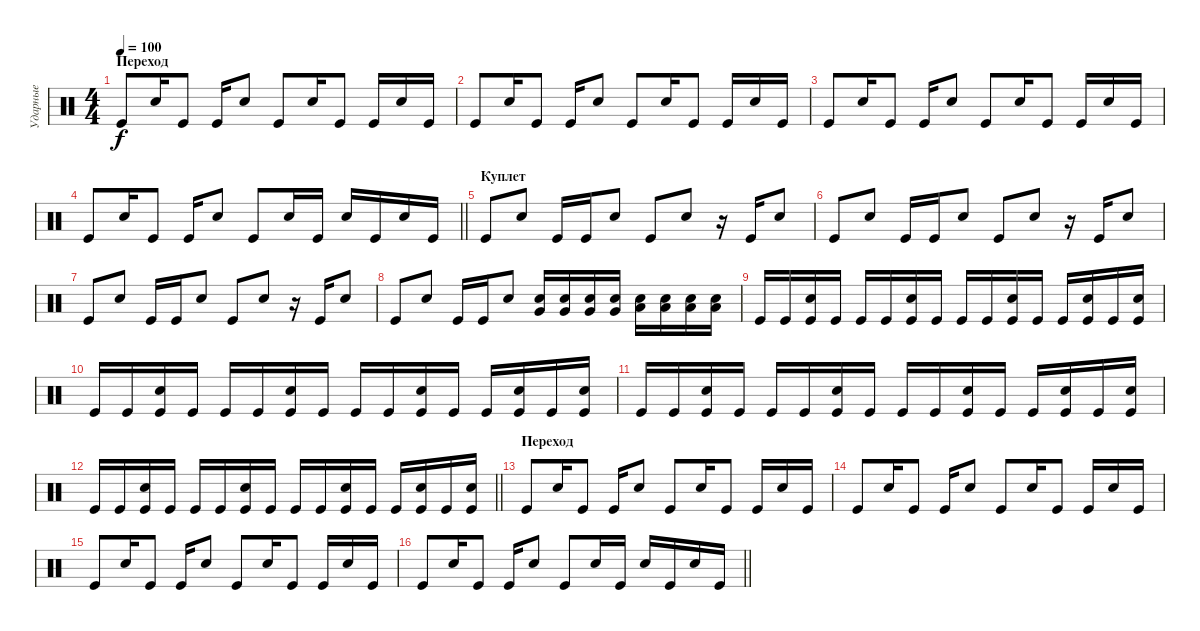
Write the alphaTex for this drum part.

\track ("Ударные" "Ударные") {instrument percussion}
\staff {score}
\articulation defaults
\ts (4 4)
\section ("" "Переход")
\tempo 100
\clef neutral
\ks c "Kick (hit)".8{dy f} "Snare (hit) 2".16 "Kick (hit)".8 "Kick (hit)".16 "Snare (hit) 2".8 "Kick (hit)".8 "Snare (hit) 2".16 "Kick (hit)".8 "Kick (hit)".16 "Snare (hit) 2".16 "Kick (hit)".16
|
"Kick (hit)".8 "Snare (hit) 2".16 "Kick (hit)".8 "Kick (hit)".16 "Snare (hit) 2".8 "Kick (hit)".8 "Snare (hit) 2".16 "Kick (hit)".8 "Kick (hit)".16 "Snare (hit) 2".16 "Kick (hit)".16 |
"Kick (hit)".8 "Snare (hit) 2".16 "Kick (hit)".8 "Kick (hit)".16 "Snare (hit) 2".8 "Kick (hit)".8 "Snare (hit) 2".16 "Kick (hit)".8 "Kick (hit)".16 "Snare (hit) 2".16 "Kick (hit)".16 |
\barLineRight lightlight "Kick (hit)".8 "Snare (hit) 2".16 "Kick (hit)".8 "Kick (hit)".16 "Snare (hit) 2".8 "Kick (hit)".8 "Snare (hit) 2".16 "Kick (hit)".16 "Snare (hit) 2".16 "Kick (hit)".16 "Snare (hit) 2".16 "Kick (hit)".16
|
\section ("" "Куплет")
"Kick (hit)".8 "Snare (hit) 2".8 "Kick (hit)".16 "Kick (hit)".16 "Snare (hit) 2".8 "Kick (hit)".8 "Snare (hit) 2".8 r.16 "Kick (hit)".16 "Snare (hit) 2".8 |
"Kick (hit)".8 "Snare (hit) 2".8 "Kick (hit)".16 "Kick (hit)".16 "Snare (hit) 2".8 "Kick (hit)".8 "Snare (hit) 2".8 r.16 "Kick (hit)".16 "Snare (hit) 2".8 |
"Kick (hit)".8 "Snare (hit) 2".8 "Kick (hit)".16 "Kick (hit)".16 "Snare (hit) 2".8 "Kick (hit)".8 "Snare (hit) 2".8 r.16 "Kick (hit)".16 "Snare (hit) 2".8 |
"Kick (hit)".8 "Snare (hit) 2".8 "Kick (hit)".16 "Kick (hit)".16 "Snare (hit) 2".8 ("Snare (hit) 2" "Very Low Tom (hit)").16 ("Snare (hit) 2" "Very Low Tom (hit)").16 ("Snare (hit) 2" "Very Low Tom (hit)").16 ("Snare (hit) 2" "Very Low Tom (hit)").16 ("Snare (hit) 2" "Low Floor Tom (hit)").16 ("Snare (hit) 2" "Low Floor Tom (hit)").16 ("Snare (hit) 2" "Low Floor Tom (hit)").16 ("Snare (hit) 2" "Low Floor Tom (hit)").16 |
"Kick (hit)".16 "Kick (hit)".16 ("Kick (hit)" "Snare (hit) 2").16 "Kick (hit)".16 "Kick (hit)".16 "Kick (hit)".16 ("Kick (hit)" "Snare (hit) 2").16 "Kick (hit)".16 "Kick (hit)".16 "Kick (hit)".16 ("Kick (hit)" "Snare (hit) 2").16 "Kick (hit)".16 "Kick (hit)".16 ("Kick (hit)" "Snare (hit) 2").16 "Kick (hit)".16 ("Kick (hit)" "Snare (hit) 2").16 |
"Kick (hit)".16 "Kick (hit)".16 ("Kick (hit)" "Snare (hit) 2").16 "Kick (hit)".16 "Kick (hit)".16 "Kick (hit)".16 ("Kick (hit)" "Snare (hit) 2").16 "Kick (hit)".16 "Kick (hit)".16 "Kick (hit)".16 ("Kick (hit)" "Snare (hit) 2").16 "Kick (hit)".16 "Kick (hit)".16 ("Kick (hit)" "Snare (hit) 2").16 "Kick (hit)".16 ("Kick (hit)" "Snare (hit) 2").16 |
"Kick (hit)".16 "Kick (hit)".16 ("Kick (hit)" "Snare (hit) 2").16 "Kick (hit)".16 "Kick (hit)".16 "Kick (hit)".16 ("Kick (hit)" "Snare (hit) 2").16 "Kick (hit)".16 "Kick (hit)".16 "Kick (hit)".16 ("Kick (hit)" "Snare (hit) 2").16 "Kick (hit)".16 "Kick (hit)".16 ("Kick (hit)" "Snare (hit) 2").16 "Kick (hit)".16 ("Kick (hit)" "Snare (hit) 2").16 |
\barLineRight lightlight "Kick (hit)".16 "Kick (hit)".16
("Kick (hit)" "Snare (hit) 2").16 "Kick (hit)".16 "Kick (hit)".16 "Kick (hit)".16 ("Kick (hit)" "Snare (hit) 2").16 "Kick (hit)".16 "Kick (hit)".16 "Kick (hit)".16 ("Kick (hit)" "Snare (hit) 2").16 "Kick (hit)".16 "Kick (hit)".16 ("Kick (hit)" "Snare (hit) 2").16 "Kick (hit)".16 ("Kick (hit)" "Snare (hit) 2").16 |
\section ("" "Переход")
"Kick (hit)".8 "Snare (hit) 2".16 "Kick (hit)".8 "Kick (hit)".16 "Snare (hit) 2".8 "Kick (hit)".8 "Snare (hit) 2".16 "Kick (hit)".8 "Kick (hit)".16 "Snare (hit) 2".16 "Kick (hit)".16 |
"Kick (hit)".8 "Snare (hit) 2".16 "Kick (hit)".8 "Kick (hit)".16 "Snare (hit) 2".8 "Kick (hit)".8 "Snare (hit) 2".16 "Kick (hit)".8 "Kick (hit)".16 "Snare (hit) 2".16 "Kick (hit)".16 |
"Kick (hit)".8 "Snare (hit) 2".16 "Kick (hit)".8 "Kick (hit)".16 "Snare (hit) 2".8 "Kick (hit)".8 "Snare (hit) 2".16 "Kick (hit)".8 "Kick (hit)".16 "Snare (hit) 2".16 "Kick (hit)".16 |
\barLineRight lightlight "Kick (hit)".8 "Snare (hit) 2".16 "Kick (hit)".8 "Kick (hit)".16 "Snare (hit) 2".8 "Kick (hit)".8 "Snare (hit) 2".16 "Kick (hit)".16 "Snare (hit) 2".16 "Kick (hit)".16 "Snare (hit) 2".16 "Kick (hit)".16
